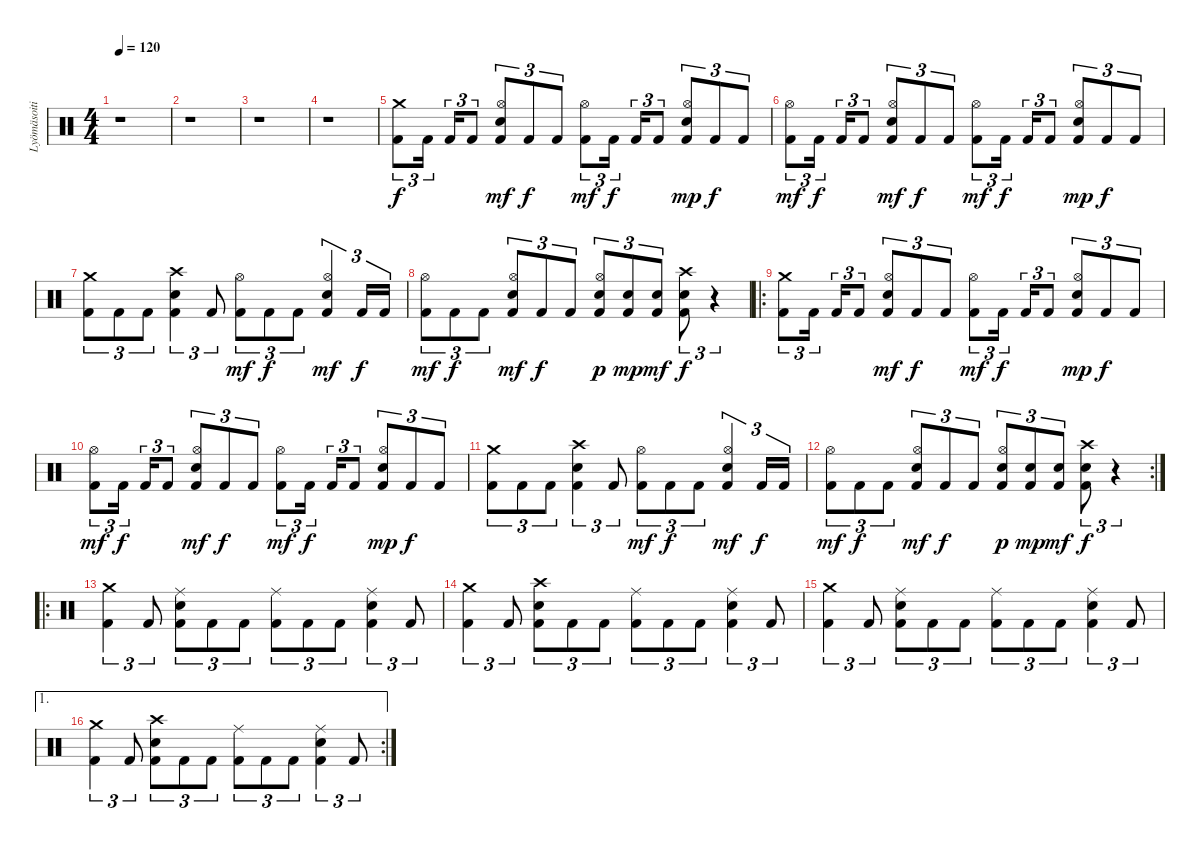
\track ("Lyömäsoitin" "Lyömäsoiti") {instrument percussion}
\staff {score}
\articulation defaults
\ts (4 4)
\tempo 120
\clef neutral
\ks c
r.1{dy f} |
r.1 |
r.1 |
r.1 |
("Crash medium (hit)" "Kick (hit) 2").8{tu (3 2)} "Kick (hit) 2".16{tu (3 2)} "Kick (hit) 2".16{tu (3 2)} "Kick (hit) 2".8{tu (3 2)} ("Hi-Hat (open)" "Snare (hit) 2" "Kick (hit) 2").8{tu (3 2) dy mf} "Kick (hit) 2".8{tu (3 2) dy f} "Kick (hit) 2".8{tu (3 2)} ("Hi-Hat (open)" "Kick (hit) 2").8{tu (3 2) dy mf} "Kick (hit) 2".16{tu (3 2) dy f} "Kick (hit) 2".16{tu (3 2)} "Kick (hit) 2".8{tu (3 2)} ("Hi-Hat (open)" "Snare (hit) 2" "Kick (hit) 2").8{tu (3 2) dy mp} "Kick (hit) 2".8{tu (3 2) dy f} "Kick (hit) 2".8{tu (3 2)} |
("Hi-Hat (open)" "Kick (hit) 2").8{tu (3 2) dy mf} "Kick (hit) 2".16{tu (3 2) dy f} "Kick (hit) 2".16{tu (3 2)} "Kick (hit) 2".8{tu (3 2)} ("Hi-Hat (open)" "Snare (hit) 2" "Kick (hit) 2").8{tu (3 2) dy mf} "Kick (hit) 2".8{tu (3 2) dy f} "Kick (hit) 2".8{tu (3 2)} ("Hi-Hat (open)" "Kick (hit) 2").8{tu (3 2) dy mf} "Kick (hit) 2".16{tu (3 2) dy f} "Kick (hit) 2".16{tu (3 2)} "Kick (hit) 2".8{tu (3 2)} ("Hi-Hat (open)" "Snare (hit) 2" "Kick (hit) 2").8{tu (3 2) dy mp} "Kick (hit) 2".8{tu (3 2) dy f} "Kick (hit) 2".8{tu (3 2)} |
("Crash medium (hit)" "Kick (hit) 2").8{tu (3 2)} "Kick (hit) 2".8{tu (3 2)} "Kick (hit) 2".8{tu (3 2)} ("Crash high (hit)" "Snare (hit) 2" "Kick (hit) 2").4{tu (3 2)} "Kick (hit) 2".8{tu (3 2)} ("Hi-Hat (open)" "Kick (hit) 2").8{tu (3 2) dy mf} "Kick (hit) 2".8{tu (3 2) dy f} "Kick (hit) 2".8{tu (3 2)} ("Hi-Hat (open)" "Snare (hit) 2" "Kick (hit) 2").4{tu (3 2) dy mf} "Kick (hit) 2".16{tu (3 2) dy f} "Kick (hit) 2".16{tu (3 2)} |
("Hi-Hat (open)" "Kick (hit) 2").8{tu (3 2) dy mf} "Kick (hit) 2".8{tu (3 2) dy f} "Kick (hit) 2".8{tu (3 2)} ("Hi-Hat (open)" "Snare (hit) 2" "Kick (hit) 2").8{tu (3 2) dy mf} "Kick (hit) 2".8{tu (3 2) dy f} "Kick (hit) 2".8{tu (3 2)} ("Hi-Hat (open)" "Snare (hit) 2" "Kick (hit) 2").8{tu (3 2) dy p} ("Snare (hit) 2" "Kick (hit) 2").8{tu (3 2) dy mp} ("Snare (hit) 2" "Kick (hit) 2").8{tu (3 2) dy mf} ("Crash high (hit)" "Snare (hit) 2" "Kick (hit) 2").8{tu (3 2) dy f} r.4{tu (3 2)} |
\ro
("Crash medium (hit)" "Kick (hit) 2").8{tu (3 2)} "Kick (hit) 2".16{tu (3 2)} "Kick (hit) 2".16{tu (3 2)} "Kick (hit) 2".8{tu (3 2)} ("Hi-Hat (open)" "Snare (hit) 2" "Kick (hit) 2").8{tu (3 2) dy mf} "Kick (hit) 2".8{tu (3 2) dy f} "Kick (hit) 2".8{tu (3 2)} ("Hi-Hat (open)" "Kick (hit) 2").8{tu (3 2) dy mf} "Kick (hit) 2".16{tu (3 2) dy f} "Kick (hit) 2".16{tu (3 2)} "Kick (hit) 2".8{tu (3 2)} ("Hi-Hat (open)" "Snare (hit) 2" "Kick (hit) 2").8{tu (3 2) dy mp} "Kick (hit) 2".8{tu (3 2) dy f} "Kick (hit) 2".8{tu (3 2)} |
("Hi-Hat (open)" "Kick (hit) 2").8{tu (3 2) dy mf} "Kick (hit) 2".16{tu (3 2) dy f} "Kick (hit) 2".16{tu (3 2)} "Kick (hit) 2".8{tu (3 2)} ("Hi-Hat (open)" "Snare (hit) 2" "Kick (hit) 2").8{tu (3 2) dy mf} "Kick (hit) 2".8{tu (3 2) dy f} "Kick (hit) 2".8{tu (3 2)} ("Hi-Hat (open)" "Kick (hit) 2").8{tu (3 2) dy mf} "Kick (hit) 2".16{tu (3 2) dy f} "Kick (hit) 2".16{tu (3 2)} "Kick (hit) 2".8{tu (3 2)} ("Hi-Hat (open)" "Snare (hit) 2" "Kick (hit) 2").8{tu (3 2) dy mp} "Kick (hit) 2".8{tu (3 2) dy f} "Kick (hit) 2".8{tu (3 2)} |
("Crash medium (hit)" "Kick (hit) 2").8{tu (3 2)} "Kick (hit) 2".8{tu (3 2)} "Kick (hit) 2".8{tu (3 2)} ("Crash high (hit)" "Snare (hit) 2" "Kick (hit) 2").4{tu (3 2)} "Kick (hit) 2".8{tu (3 2)} ("Hi-Hat (open)" "Kick (hit) 2").8{tu (3 2) dy mf} "Kick (hit) 2".8{tu (3 2) dy f} "Kick (hit) 2".8{tu (3 2)} ("Hi-Hat (open)" "Snare (hit) 2" "Kick (hit) 2").4{tu (3 2) dy mf} "Kick (hit) 2".16{tu (3 2) dy f} "Kick (hit) 2".16{tu (3 2)} |
\rc 2
("Hi-Hat (open)" "Kick (hit) 2").8{tu (3 2) dy mf} "Kick (hit) 2".8{tu (3 2) dy f} "Kick (hit) 2".8{tu (3 2)} ("Hi-Hat (open)" "Snare (hit) 2" "Kick (hit) 2").8{tu (3 2) dy mf} "Kick (hit) 2".8{tu (3 2) dy f} "Kick (hit) 2".8{tu (3 2)} ("Hi-Hat (open)" "Snare (hit) 2" "Kick (hit) 2").8{tu (3 2) dy p} ("Snare (hit) 2" "Kick (hit) 2").8{tu (3 2) dy mp} ("Snare (hit) 2" "Kick (hit) 2").8{tu (3 2) dy mf} ("Crash high (hit)" "Snare (hit) 2" "Kick (hit) 2").8{tu (3 2) dy f} r.4{tu (3 2)} |
\ro
("Crash medium (hit)" "Kick (hit) 2").4{tu (3 2)} "Kick (hit) 2".8{tu (3 2)} ("Ride (middle)" "Snare (hit) 2" "Kick (hit) 2").8{tu (3 2)} "Kick (hit) 2".8{tu (3 2)} "Kick (hit) 2".8{tu (3 2)} ("Ride (middle)" "Kick (hit) 2").8{tu (3 2)} "Kick (hit) 2".8{tu (3 2)} "Kick (hit) 2".8{tu (3 2)} ("Ride (middle)" "Snare (hit) 2" "Kick (hit) 2").4{tu (3 2)} "Kick (hit) 2".8{tu (3 2)} |
("Crash medium (hit)" "Kick (hit) 2").4{tu (3 2)} "Kick (hit) 2".8{tu (3 2)} ("Crash high (hit)" "Snare (hit) 2" "Kick (hit) 2").8{tu (3 2)} "Kick (hit) 2".8{tu (3 2)} "Kick (hit) 2".8{tu (3 2)} ("Ride (middle)" "Kick (hit) 2").8{tu (3 2)} "Kick (hit) 2".8{tu (3 2)} "Kick (hit) 2".8{tu (3 2)} ("Ride (middle)" "Snare (hit) 2" "Kick (hit) 2").4{tu (3 2)} "Kick (hit) 2".8{tu (3 2)} |
("Crash medium (hit)" "Kick (hit) 2").4{tu (3 2)} "Kick (hit) 2".8{tu (3 2)} ("Ride (middle)" "Snare (hit) 2" "Kick (hit) 2").8{tu (3 2)} "Kick (hit) 2".8{tu (3 2)} "Kick (hit) 2".8{tu (3 2)} ("Ride (middle)" "Kick (hit) 2").8{tu (3 2)} "Kick (hit) 2".8{tu (3 2)} "Kick (hit) 2".8{tu (3 2)} ("Ride (middle)" "Snare (hit) 2" "Kick (hit) 2").4{tu (3 2)} "Kick (hit) 2".8{tu (3 2)} |
\ae 1
\rc 2
("Crash medium (hit)" "Kick (hit) 2").4{tu (3 2)} "Kick (hit) 2".8{tu (3 2)} ("Crash high (hit)" "Snare (hit) 2" "Kick (hit) 2").8{tu (3 2)} "Kick (hit) 2".8{tu (3 2)} "Kick (hit) 2".8{tu (3 2)} ("Ride (middle)" "Kick (hit) 2").8{tu (3 2)} "Kick (hit) 2".8{tu (3 2)} "Kick (hit) 2".8{tu (3 2)} ("Ride (middle)" "Snare (hit) 2" "Kick (hit) 2").4{tu (3 2)} "Kick (hit) 2".8{tu (3 2)}
